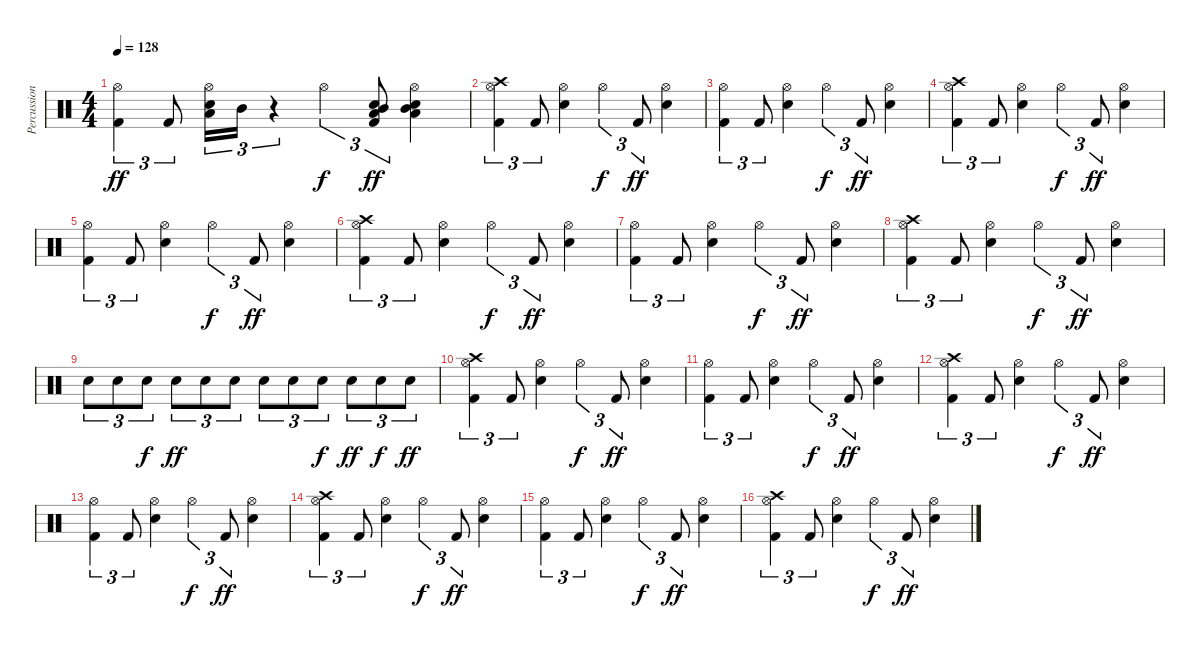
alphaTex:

\track ("Percussion" "Percussion") {instrument percussion}
\staff {score}
\articulation defaults
\ts (4 4)
\tempo 128
\clef neutral
\ks c
("Kick (hit) 2" "Hi-Hat (open)").4{tu (3 2) dy ff} "Kick (hit) 2".8{tu (3 2)} ("Snare (hit) 2" "Hi-Hat (open)" "Low Floor Tom (hit)").16{tu (3 2)} "Mid Tom (hit)".16{tu (3 2)} r.4{tu (3 2)} "Hi-Hat (open)".4{tu (3 2) dy f} ("Snare (hit) 2" "Kick (hit) 2" "Mid Tom (hit)" "Low Floor Tom (hit)").8{tu (3 2) dy ff} ("Low Floor Tom (hit)" "Hi-Hat (open)" "Snare (hit) 2" "Mid Tom (hit)").4 |
("Kick (hit) 2" "Crash high (hit)" "Hi-Hat (open)").4{tu (3 2)} "Kick (hit) 2".8{tu (3 2)} ("Snare (hit) 2" "Hi-Hat (open)").4 "Hi-Hat (open)".4{tu (3 2) dy f} "Kick (hit) 2".8{tu (3 2) dy ff} ("Snare (hit) 2" "Hi-Hat (open)").4 |
("Kick (hit) 2" "Hi-Hat (open)").4{tu (3 2)} "Kick (hit) 2".8{tu (3 2)} ("Snare (hit) 2" "Hi-Hat (open)").4 "Hi-Hat (open)".4{tu (3 2) dy f} "Kick (hit) 2".8{tu (3 2) dy ff} ("Snare (hit) 2" "Hi-Hat (open)").4 |
("Kick (hit) 2" "Crash high (hit)" "Hi-Hat (open)").4{tu (3 2)} "Kick (hit) 2".8{tu (3 2)} ("Snare (hit) 2" "Hi-Hat (open)").4 "Hi-Hat (open)".4{tu (3 2) dy f} "Kick (hit) 2".8{tu (3 2) dy ff} ("Snare (hit) 2" "Hi-Hat (open)").4 |
("Kick (hit) 2" "Hi-Hat (open)").4{tu (3 2)} "Kick (hit) 2".8{tu (3 2)} ("Hi-Hat (open)" "Snare (hit) 2").4 "Hi-Hat (open)".4{tu (3 2) dy f} "Kick (hit) 2".8{tu (3 2) dy ff} ("Snare (hit) 2" "Hi-Hat (open)").4 |
("Kick (hit) 2" "Crash high (hit)" "Hi-Hat (open)").4{tu (3 2)} "Kick (hit) 2".8{tu (3 2)} ("Snare (hit) 2" "Hi-Hat (open)").4 "Hi-Hat (open)".4{tu (3 2) dy f} "Kick (hit) 2".8{tu (3 2) dy ff} ("Snare (hit) 2" "Hi-Hat (open)").4 |
("Hi-Hat (open)" "Kick (hit) 2").4{tu (3 2)} "Kick (hit) 2".8{tu (3 2)} ("Hi-Hat (open)" "Snare (hit) 2").4 "Hi-Hat (open)".4{tu (3 2) dy f} "Kick (hit) 2".8{tu (3 2) dy ff} ("Snare (hit) 2" "Hi-Hat (open)").4 |
("Kick (hit) 2" "Crash high (hit)" "Hi-Hat (open)").4{tu (3 2)} "Kick (hit) 2".8{tu (3 2)} ("Snare (hit) 2" "Hi-Hat (open)").4 "Hi-Hat (open)".4{tu (3 2) dy f} "Kick (hit) 2".8{tu (3 2) dy ff} ("Snare (hit) 2" "Hi-Hat (open)").4 |
"Snare (hit) 2".8{tu (3 2)} "Snare (hit) 2".8{tu (3 2)} "Snare (hit) 2".8{tu (3 2) dy f} "Snare (hit) 2".8{tu (3 2) dy ff} "Snare (hit) 2".8{tu (3 2)} "Snare (hit) 2".8{tu (3 2)} "Snare (hit) 2".8{tu (3 2)} "Snare (hit) 2".8{tu (3 2)} "Snare (hit) 2".8{tu (3 2) dy f} "Snare (hit) 2".8{tu (3 2) dy ff} "Snare (hit) 2".8{tu (3 2) dy f} "Snare (hit) 2".8{tu (3 2) dy ff} |
("Hi-Hat (open)" "Kick (hit) 2" "Crash high (hit)").4{tu (3 2)} "Kick (hit) 2".8{tu (3 2)} ("Hi-Hat (open)" "Snare (hit) 2").4 "Hi-Hat (open)".4{tu (3 2) dy f} "Kick (hit) 2".8{tu (3 2) dy ff} ("Snare (hit) 2" "Hi-Hat (open)").4 |
("Hi-Hat (open)" "Kick (hit) 2").4{tu (3 2)} "Kick (hit) 2".8{tu (3 2)} ("Snare (hit) 2" "Hi-Hat (open)").4 "Hi-Hat (open)".4{tu (3 2) dy f} "Kick (hit) 2".8{tu (3 2) dy ff} ("Snare (hit) 2" "Hi-Hat (open)").4 |
("Hi-Hat (open)" "Kick (hit) 2" "Crash high (hit)").4{tu (3 2)} "Kick (hit) 2".8{tu (3 2)} ("Hi-Hat (open)" "Snare (hit) 2").4 "Hi-Hat (open)".4{tu (3 2) dy f} "Kick (hit) 2".8{tu (3 2) dy ff} ("Snare (hit) 2" "Hi-Hat (open)").4 |
("Hi-Hat (open)" "Kick (hit) 2").4{tu (3 2)} "Kick (hit) 2".8{tu (3 2)} ("Snare (hit) 2" "Hi-Hat (open)").4 "Hi-Hat (open)".4{tu (3 2) dy f} "Kick (hit) 2".8{tu (3 2) dy ff} ("Snare (hit) 2" "Hi-Hat (open)").4 |
("Kick (hit) 2" "Hi-Hat (open)" "Crash high (hit)").4{tu (3 2)} "Kick (hit) 2".8{tu (3 2)} ("Snare (hit) 2" "Hi-Hat (open)").4 "Hi-Hat (open)".4{tu (3 2) dy f} "Kick (hit) 2".8{tu (3 2) dy ff} ("Snare (hit) 2" "Hi-Hat (open)").4 |
("Hi-Hat (open)" "Kick (hit) 2").4{tu (3 2)} "Kick (hit) 2".8{tu (3 2)} ("Snare (hit) 2" "Hi-Hat (open)").4 "Hi-Hat (open)".4{tu (3 2) dy f} "Kick (hit) 2".8{tu (3 2) dy ff} ("Snare (hit) 2" "Hi-Hat (open)").4 |
("Kick (hit) 2" "Crash high (hit)" "Hi-Hat (open)").4{tu (3 2)} "Kick (hit) 2".8{tu (3 2)} ("Snare (hit) 2" "Hi-Hat (open)").4 "Hi-Hat (open)".4{tu (3 2) dy f} "Kick (hit) 2".8{tu (3 2) dy ff} ("Snare (hit) 2" "Hi-Hat (open)").4
